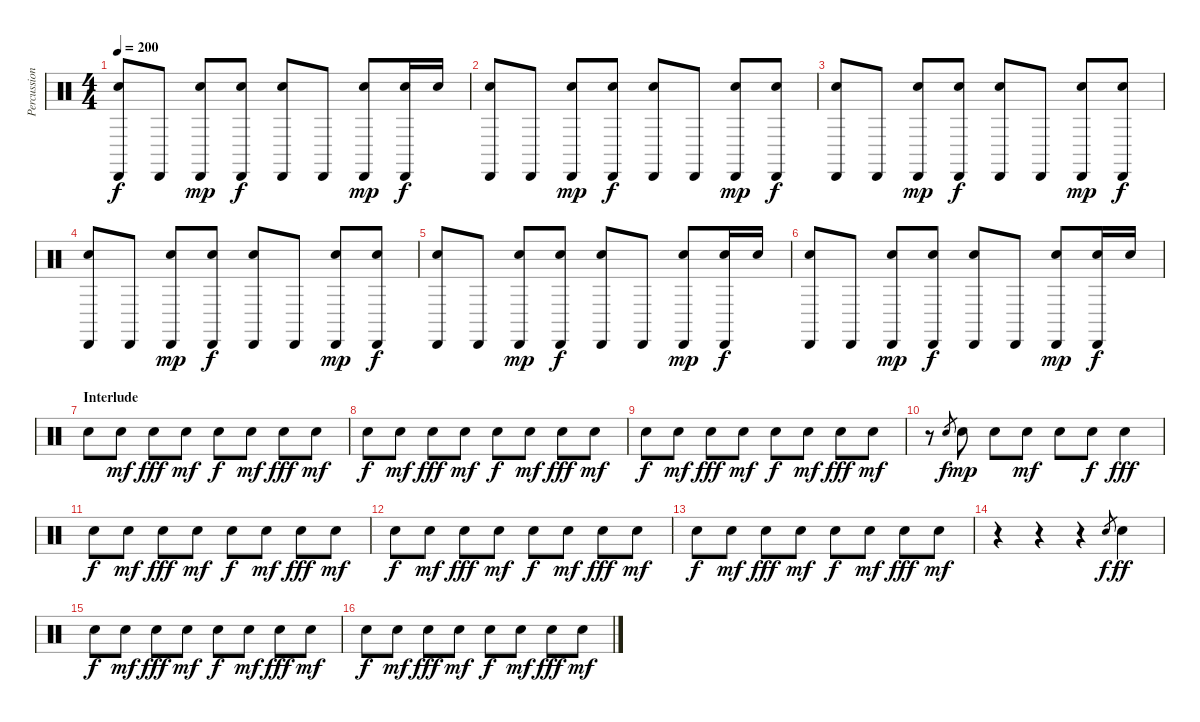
\track ("Percussion" "Percussion") {instrument percussion}
\staff {score}
\articulation defaults
\ts (4 4)
\tempo 200
\clef neutral
\ks c
("Cabasa (hit)" "Snare (hit) 2").8{dy f} "Cabasa (hit)".8 ("Cabasa (hit)" "Snare (hit) 2").8{dy mp} ("Cabasa (hit)" "Snare (hit) 2").8{dy f} ("Cabasa (hit)" "Snare (hit) 2").8 "Cabasa (hit)".8 ("Cabasa (hit)" "Snare (hit) 2").8{dy mp} ("Cabasa (hit)" "Snare (hit) 2").16{dy f} "Snare (hit) 2".16 |
("Cabasa (hit)" "Snare (hit) 2").8 "Cabasa (hit)".8 ("Cabasa (hit)" "Snare (hit) 2").8{dy mp} ("Cabasa (hit)" "Snare (hit) 2").8{dy f} ("Cabasa (hit)" "Snare (hit) 2").8 "Cabasa (hit)".8 ("Cabasa (hit)" "Snare (hit) 2").8{dy mp} ("Cabasa (hit)" "Snare (hit) 2").8{dy f} |
("Cabasa (hit)" "Snare (hit) 2").8 "Cabasa (hit)".8 ("Cabasa (hit)" "Snare (hit) 2").8{dy mp} ("Cabasa (hit)" "Snare (hit) 2").8{dy f} ("Cabasa (hit)" "Snare (hit) 2").8 "Cabasa (hit)".8 ("Cabasa (hit)" "Snare (hit) 2").8{dy mp} ("Cabasa (hit)" "Snare (hit) 2").8{dy f} |
("Cabasa (hit)" "Snare (hit) 2").8 "Cabasa (hit)".8 ("Cabasa (hit)" "Snare (hit) 2").8{dy mp} ("Cabasa (hit)" "Snare (hit) 2").8{dy f} ("Cabasa (hit)" "Snare (hit) 2").8 "Cabasa (hit)".8 ("Cabasa (hit)" "Snare (hit) 2").8{dy mp} ("Cabasa (hit)" "Snare (hit) 2").8{dy f} |
("Cabasa (hit)" "Snare (hit) 2").8 "Cabasa (hit)".8 ("Cabasa (hit)" "Snare (hit) 2").8{dy mp} ("Cabasa (hit)" "Snare (hit) 2").8{dy f} ("Cabasa (hit)" "Snare (hit) 2").8 "Cabasa (hit)".8 ("Cabasa (hit)" "Snare (hit) 2").8{dy mp} ("Cabasa (hit)" "Snare (hit) 2").16{dy f} "Snare (hit) 2".16 |
("Cabasa (hit)" "Snare (hit) 2").8 "Cabasa (hit)".8 ("Cabasa (hit)" "Snare (hit) 2").8{dy mp} ("Cabasa (hit)" "Snare (hit) 2").8{dy f} ("Cabasa (hit)" "Snare (hit) 2").8 "Cabasa (hit)".8 ("Cabasa (hit)" "Snare (hit) 2").8{dy mp} ("Cabasa (hit)" "Snare (hit) 2").16{dy f} "Snare (hit) 2".16 |
\section ("" "Interlude")
"Snare (hit) 2".8 "Snare (hit) 2".8{dy mf} "Snare (hit) 2".8{dy fff} "Snare (hit) 2".8{dy mf} "Snare (hit) 2".8{dy f} "Snare (hit) 2".8{dy mf} "Snare (hit) 2".8{dy fff} "Snare (hit) 2".8{dy mf} |
"Snare (hit) 2".8{dy f} "Snare (hit) 2".8{dy mf} "Snare (hit) 2".8{dy fff} "Snare (hit) 2".8{dy mf} "Snare (hit) 2".8{dy f} "Snare (hit) 2".8{dy mf} "Snare (hit) 2".8{dy fff} "Snare (hit) 2".8{dy mf} |
"Snare (hit) 2".8{dy f} "Snare (hit) 2".8{dy mf} "Snare (hit) 2".8{dy fff} "Snare (hit) 2".8{dy mf} "Snare (hit) 2".8{dy f} "Snare (hit) 2".8{dy mf} "Snare (hit) 2".8{dy fff} "Snare (hit) 2".8{dy mf} |
r.8 "Snare (hit) 2".8{gr dy f} "Snare (hit) 2".8{dy mp} "Snare (hit) 2".8 "Snare (hit) 2".8{dy mf} "Snare (hit) 2".8 "Snare (hit) 2".8{dy f} "Snare (hit) 2".4{dy fff} |
"Snare (hit) 2".8{dy f} "Snare (hit) 2".8{dy mf} "Snare (hit) 2".8{dy fff} "Snare (hit) 2".8{dy mf} "Snare (hit) 2".8{dy f} "Snare (hit) 2".8{dy mf} "Snare (hit) 2".8{dy fff} "Snare (hit) 2".8{dy mf} |
"Snare (hit) 2".8{dy f} "Snare (hit) 2".8{dy mf} "Snare (hit) 2".8{dy fff} "Snare (hit) 2".8{dy mf} "Snare (hit) 2".8{dy f} "Snare (hit) 2".8{dy mf} "Snare (hit) 2".8{dy fff} "Snare (hit) 2".8{dy mf} |
"Snare (hit) 2".8{dy f} "Snare (hit) 2".8{dy mf} "Snare (hit) 2".8{dy fff} "Snare (hit) 2".8{dy mf} "Snare (hit) 2".8{dy f} "Snare (hit) 2".8{dy mf} "Snare (hit) 2".8{dy fff} "Snare (hit) 2".8{dy mf} |
r.4 r.4 r.4 "Snare (hit) 2".8{gr dy f} "Snare (hit) 2".4{dy ff} |
"Snare (hit) 2".8{dy f} "Snare (hit) 2".8{dy mf} "Snare (hit) 2".8{dy fff} "Snare (hit) 2".8{dy mf} "Snare (hit) 2".8{dy f} "Snare (hit) 2".8{dy mf} "Snare (hit) 2".8{dy fff} "Snare (hit) 2".8{dy mf} |
"Snare (hit) 2".8{dy f} "Snare (hit) 2".8{dy mf} "Snare (hit) 2".8{dy fff} "Snare (hit) 2".8{dy mf} "Snare (hit) 2".8{dy f} "Snare (hit) 2".8{dy mf} "Snare (hit) 2".8{dy fff} "Snare (hit) 2".8{dy mf}
